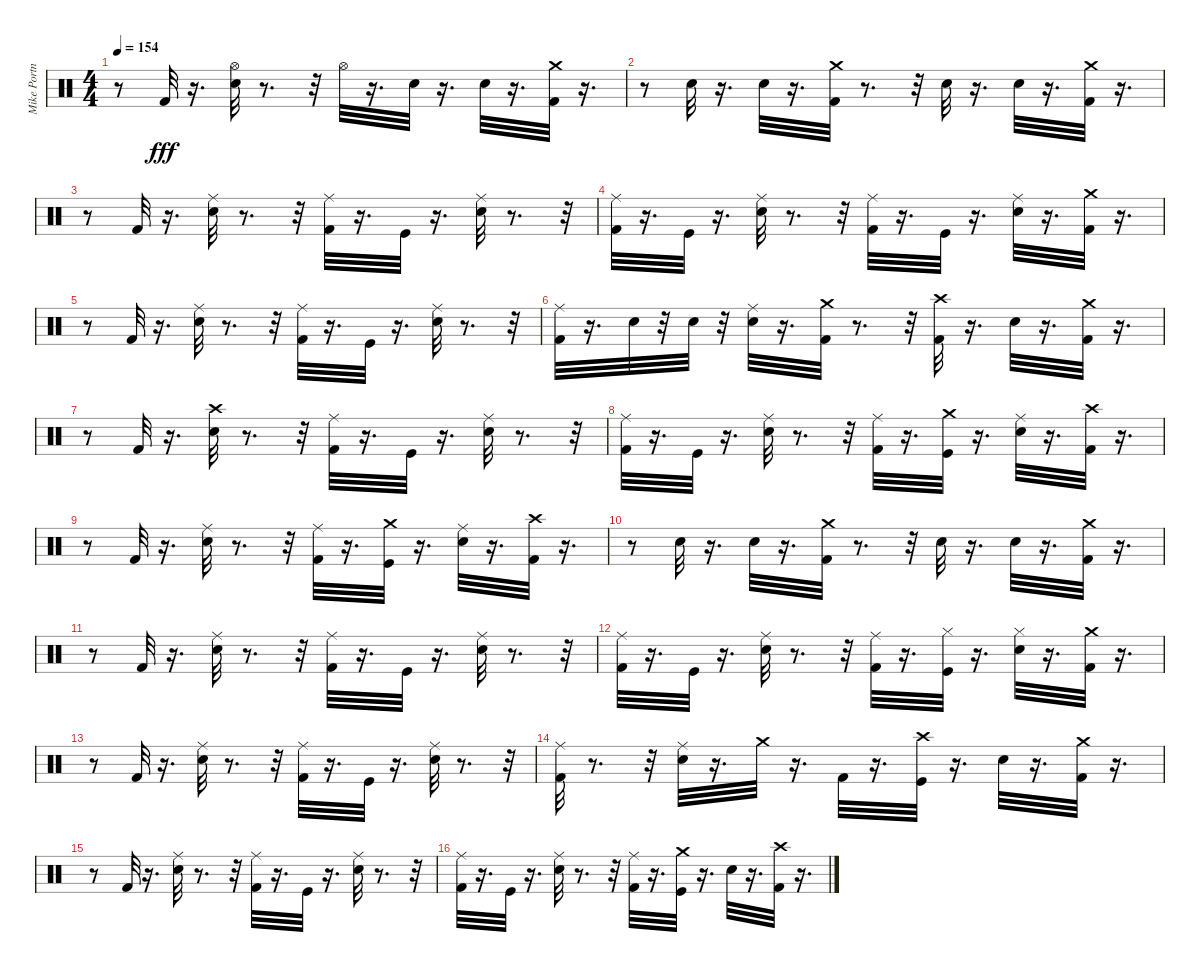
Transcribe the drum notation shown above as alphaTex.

\track ("Mike Portnoy" "Mike Portn") {instrument percussion}
\staff {score}
\articulation defaults
\ts (4 4)
\tempo 154
\clef neutral
\ks c
r.8{dy fff} "Kick (hit) 2".32 r.16{d} ("Snare (hit) 2" "Hi-Hat (open)").32 r.8{d} r.32 "Hi-Hat (open)".32 r.16{d} "Snare (hit) 2".32 r.16{d} "Snare (hit) 2".32 r.16{d} ("Crash medium (hit)" "Kick (hit) 2").32 r.16{d} |
r.8 "Snare (hit) 2".32 r.16{d} "Snare (hit) 2".32 r.16{d} ("Kick (hit) 2" "Crash medium (hit)").32 r.8{d} r.32 "Snare (hit) 2".32 r.16{d} "Snare (hit) 2".32 r.16{d} ("Crash medium (hit)" "Kick (hit) 2").32 r.16{d} |
r.8 "Kick (hit) 2".32 r.16{d} ("Snare (hit) 2" "Ride (middle)").32 r.8{d} r.32 ("Kick (hit) 2" "Ride (middle)").32 r.16{d} "Kick (hit)".32 r.16{d} ("Snare (hit) 2" "Ride (middle)").32 r.8{d} r.32 |
("Kick (hit) 2" "Ride (middle)").32 r.16{d} "Kick (hit)".32 r.16{d} ("Snare (hit) 2" "Ride (middle)").32 r.8{d} r.32 ("Ride (middle)" "Kick (hit) 2").32 r.16{d} "Kick (hit)".32 r.16{d} ("Snare (hit) 2" "Ride (middle)").32 r.16{d} ("Kick (hit) 2" "Crash medium (hit)").32 r.16{d} |
r.8 "Kick (hit) 2".32 r.16{d} ("Snare (hit) 2" "Ride (middle)").32 r.8{d} r.32 ("Kick (hit) 2" "Ride (middle)").32 r.16{d} "Kick (hit)".32 r.16{d} ("Snare (hit) 2" "Ride (middle)").32 r.8{d} r.32 |
("Kick (hit) 2" "Ride (middle)").32 r.16{d} "Snare (hit) 2".32 r.32 "Snare (hit) 2".32 r.32 ("Snare (hit) 2" "Ride (middle)").32 r.16{d} ("Kick (hit) 2" "Crash medium (hit)").32 r.8{d} r.32 ("Kick (hit) 2" "Crash high (hit)").32 r.16{d} "Snare (hit) 2".32 r.16{d} ("Kick (hit) 2" "Crash medium (hit)").32 r.16{d} |
r.8 "Kick (hit) 2".32 r.16{d} ("Snare (hit) 2" "Crash high (hit)").32 r.8{d} r.32 ("Kick (hit) 2" "Ride (middle)").32 r.16{d} "Kick (hit)".32 r.16{d} ("Snare (hit) 2" "Ride (middle)").32 r.8{d} r.32 |
("Kick (hit) 2" "Ride (middle)").32 r.16{d} "Kick (hit)".32 r.16{d} ("Snare (hit) 2" "Ride (middle)").32 r.8{d} r.32 ("Kick (hit) 2" "Ride (middle)").32 r.16{d} ("Kick (hit)" "Crash medium (hit)").32 r.16{d} ("Snare (hit) 2" "Ride (middle)").32 r.16{d} ("Kick (hit) 2" "Crash high (hit)").32 r.16{d} |
r.8 "Kick (hit) 2".32 r.16{d} ("Snare (hit) 2" "Ride (middle)").32 r.8{d} r.32 ("Kick (hit) 2" "Ride (middle)").32 r.16{d} ("Kick (hit)" "Crash medium (hit)").32 r.16{d} ("Snare (hit) 2" "Ride (middle)").32 r.16{d} ("Kick (hit) 2" "Crash high (hit)").32 r.16{d} |
r.8 "Snare (hit) 2".32 r.16{d} "Snare (hit) 2".32 r.16{d} ("Kick (hit) 2" "Crash medium (hit)").32 r.8{d} r.32 "Snare (hit) 2".32 r.16{d} "Snare (hit) 2".32 r.16{d} ("Kick (hit) 2" "Crash medium (hit)").32 r.16{d} |
r.8 "Kick (hit) 2".32 r.16{d} ("Snare (hit) 2" "Ride (middle)").32 r.8{d} r.32 ("Kick (hit) 2" "Ride (middle)").32 r.16{d} "Kick (hit)".32 r.16{d} ("Snare (hit) 2" "Ride (middle)").32 r.8{d} r.32 |
("Kick (hit) 2" "Ride (middle)").32 r.16{d} "Kick (hit)".32 r.16{d} ("Snare (hit) 2" "Ride (middle)").32 r.8{d} r.32 ("Kick (hit) 2" "Ride (middle)").32 r.16{d} ("Kick (hit)" "Hi-Hat (closed)").32 r.16{d} ("Snare (hit) 2" "Hi-Hat (closed)").32 r.16{d} ("Kick (hit) 2" "Crash medium (hit)").32 r.16{d} |
r.8 "Kick (hit) 2".32 r.16{d} ("Snare (hit) 2" "Ride (middle)").32 r.8{d} r.32 ("Kick (hit) 2" "Ride (middle)").32 r.16{d} "Kick (hit)".32 r.16{d} ("Snare (hit) 2" "Ride (middle)").32 r.8{d} r.32 |
("Kick (hit) 2" "Ride (middle)").32 r.8{d} r.32 ("Snare (hit) 2" "Ride (middle)").32 r.16{d} "Crash medium (hit)".32 r.16{d} "Kick (hit) 2".32 r.16{d} ("Kick (hit)" "Crash high (hit)").32 r.16{d} "Snare (hit) 2".32 r.16{d} ("Kick (hit) 2" "Crash medium (hit)").32 r.16{d} |
r.8 "Kick (hit) 2".32 r.16{d} ("Snare (hit) 2" "Ride (middle)").32 r.8{d} r.32 ("Kick (hit) 2" "Ride (middle)").32 r.16{d} "Kick (hit)".32 r.16{d} ("Snare (hit) 2" "Ride (middle)").32 r.8{d} r.32 |
("Kick (hit) 2" "Ride (middle)").32 r.16{d} "Kick (hit)".32 r.16{d} ("Snare (hit) 2" "Ride (middle)").32 r.8{d} r.32 ("Kick (hit) 2" "Ride (middle)").32 r.16{d} ("Kick (hit)" "Crash medium (hit)").32 r.16{d} "Snare (hit) 2".32 r.16{d} ("Kick (hit) 2" "Crash high (hit)").32 r.16{d}
